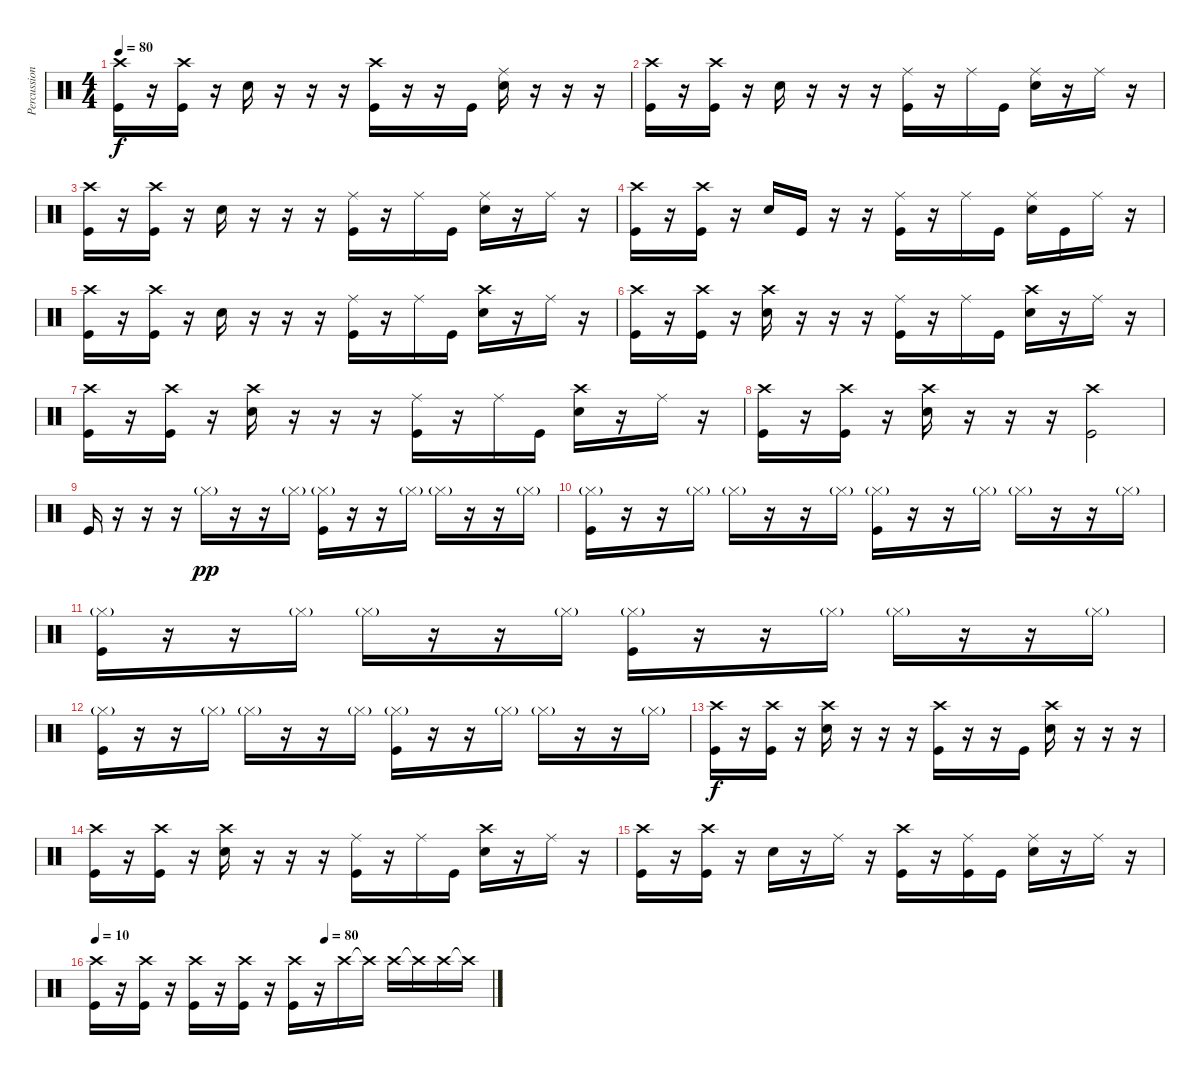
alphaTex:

\track ("Percussion" "Percussion") {instrument percussion}
\staff {score}
\articulation defaults
\ts (4 4)
\tempo 80
\clef neutral
\ks c
("Crash high (hit)" "Kick (hit)").16{dy f} r.16 ("Crash high (hit)" "Kick (hit)").16 r.16 "Snare (hit) 2".16 r.16 r.16 r.16 ("Crash high (hit)" "Kick (hit)").16 r.16 r.16 "Kick (hit)".16 ("Snare (hit) 2" "Ride (middle)").16 r.16 r.16 r.16 |
("Crash high (hit)" "Kick (hit)").16 r.16 ("Crash high (hit)" "Kick (hit)").16 r.16 "Snare (hit) 2".16 r.16 r.16 r.16 ("Ride (middle)" "Kick (hit)").16 r.16 "Ride (middle)".16 "Kick (hit)".16 ("Snare (hit) 2" "Ride (middle)").16 r.16 "Ride (middle)".16 r.16 |
("Crash high (hit)" "Kick (hit)").16 r.16 ("Crash high (hit)" "Kick (hit)").16 r.16 "Snare (hit) 2".16 r.16 r.16 r.16 ("Ride (middle)" "Kick (hit)").16 r.16 "Ride (middle)".16 "Kick (hit)".16 ("Snare (hit) 2" "Ride (middle)").16 r.16 "Ride (middle)".16 r.16 |
("Crash high (hit)" "Kick (hit)").16 r.16 ("Crash high (hit)" "Kick (hit)").16 r.16 "Snare (hit) 2".16 "Kick (hit)".16 r.16 r.16 ("Ride (middle)" "Kick (hit)").16 r.16 "Ride (middle)".16 "Kick (hit)".16 ("Snare (hit) 2" "Ride (middle)").16 "Kick (hit)".16 "Ride (middle)".16 r.16 |
("Crash high (hit)" "Kick (hit)").16 r.16 ("Crash high (hit)" "Kick (hit)").16 r.16 "Snare (hit) 2".16 r.16 r.16 r.16 ("Ride (middle)" "Kick (hit)").16 r.16 "Ride (middle)".16 "Kick (hit)".16 ("Snare (hit) 2" "Crash high (hit)").16 r.16 "Ride (middle)".16 r.16 |
("Crash high (hit)" "Kick (hit)").16 r.16 ("Crash high (hit)" "Kick (hit)").16 r.16 ("Snare (hit) 2" "Crash high (hit)").16 r.16 r.16 r.16 ("Ride (middle)" "Kick (hit)").16 r.16 "Ride (middle)".16 "Kick (hit)".16 ("Snare (hit) 2" "Crash high (hit)").16 r.16 "Ride (middle)".16 r.16 |
("Crash high (hit)" "Kick (hit)").16 r.16 ("Crash high (hit)" "Kick (hit)").16 r.16 ("Snare (hit) 2" "Crash high (hit)").16 r.16 r.16 r.16 ("Ride (middle)" "Kick (hit)").16 r.16 "Ride (middle)".16 "Kick (hit)".16 ("Snare (hit) 2" "Crash high (hit)").16 r.16 "Ride (middle)".16 r.16 |
("Crash high (hit)" "Kick (hit)").16 r.16 ("Crash high (hit)" "Kick (hit)").16 r.16 ("Snare (hit) 2" "Crash high (hit)").16 r.16 r.16 r.16 ("Crash high (hit)" "Kick (hit)").2 |
"Kick (hit)".16 r.16 r.16 r.16 "Hi-Hat (closed)"{g}.16{dy pp} r.16 r.16 "Hi-Hat (closed)"{g}.16 ("Hi-Hat (closed)"{g} "Kick (hit)").16 r.16 r.16 "Hi-Hat (closed)"{g}.16 "Hi-Hat (closed)"{g}.16 r.16 r.16 "Hi-Hat (closed)"{g}.16 |
("Hi-Hat (closed)"{g} "Kick (hit)").16 r.16 r.16 "Hi-Hat (closed)"{g}.16 "Hi-Hat (closed)"{g}.16 r.16 r.16 "Hi-Hat (closed)"{g}.16 ("Hi-Hat (closed)"{g} "Kick (hit)").16 r.16 r.16 "Hi-Hat (closed)"{g}.16 "Hi-Hat (closed)"{g}.16 r.16 r.16 "Hi-Hat (closed)"{g}.16 |
("Hi-Hat (closed)"{g} "Kick (hit)").16 r.16 r.16 "Hi-Hat (closed)"{g}.16 "Hi-Hat (closed)"{g}.16 r.16 r.16 "Hi-Hat (closed)"{g}.16 ("Hi-Hat (closed)"{g} "Kick (hit)").16 r.16 r.16 "Hi-Hat (closed)"{g}.16 "Hi-Hat (closed)"{g}.16 r.16 r.16 "Hi-Hat (closed)"{g}.16 |
("Hi-Hat (closed)"{g} "Kick (hit)").16 r.16 r.16 "Hi-Hat (closed)"{g}.16 "Hi-Hat (closed)"{g}.16 r.16 r.16 "Hi-Hat (closed)"{g}.16 ("Hi-Hat (closed)"{g} "Kick (hit)").16 r.16 r.16 "Hi-Hat (closed)"{g}.16 "Hi-Hat (closed)"{g}.16 r.16 r.16 "Hi-Hat (closed)"{g}.16 |
("Crash high (hit)" "Kick (hit)").16{dy f} r.16 ("Crash high (hit)" "Kick (hit)").16 r.16 ("Snare (hit) 2" "Crash high (hit)").16 r.16 r.16 r.16 ("Crash high (hit)" "Kick (hit)").16 r.16 r.16 "Kick (hit)".16 ("Snare (hit) 2" "Crash high (hit)").16 r.16 r.16 r.16 |
("Crash high (hit)" "Kick (hit)").16 r.16 ("Crash high (hit)" "Kick (hit)").16 r.16 ("Snare (hit) 2" "Crash high (hit)").16 r.16 r.16 r.16 ("Ride (middle)" "Kick (hit)").16 r.16 "Ride (middle)".16 "Kick (hit)".16 ("Snare (hit) 2" "Crash high (hit)").16 r.16 "Ride (middle)".16 r.16 |
("Crash high (hit)" "Kick (hit)").16 r.16 ("Crash high (hit)" "Kick (hit)").16 r.16 "Snare (hit) 2".16 r.16 "Ride (middle)".16 r.16 ("Crash high (hit)" "Kick (hit)").16 r.16 ("Ride (middle)" "Kick (hit)").16 "Kick (hit)".16 ("Snare (hit) 2" "Ride (middle)").16 r.16 "Ride (middle)".16 r.16 |
\tempo 10
\tempo (80 0.578125)
("Crash high (hit)" "Kick (hit)").16 r.16 ("Crash high (hit)" "Kick (hit)").16 r.16 ("Crash high (hit)" "Kick (hit)").16 r.16 ("Crash high (hit)" "Kick (hit)").16 r.16 ("Crash high (hit)" "Kick (hit)").16 r.16 "Crash high (hit)".16 "Crash high (hit)"{t}.16 "Crash high (hit)".16 "Crash high (hit)"{t}.16 "Crash high (hit)".16 "Crash high (hit)"{t}.16
